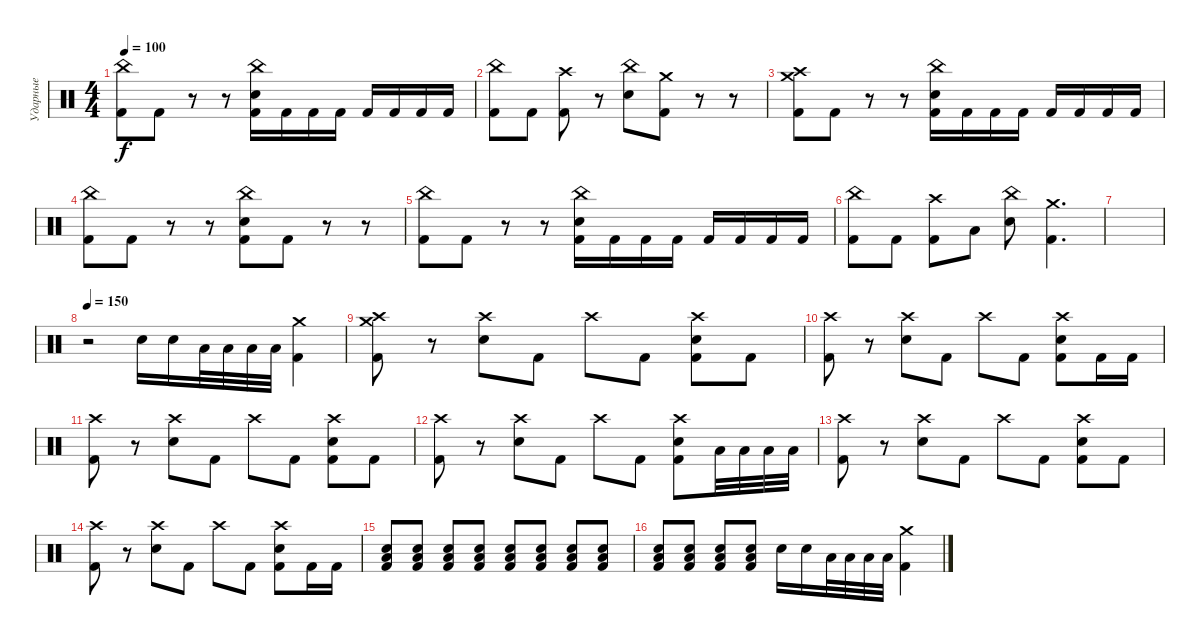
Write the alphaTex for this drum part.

\track ("Ударные" "Ударные") {instrument percussion}
\staff {score}
\articulation defaults
\ts (4 4)
\tempo 100
\clef neutral
\ks c
("China (hit)" "Kick (hit) 2").8{dy f} "Kick (hit) 2".8 r.8 r.8 ("China (hit)" "Electric Snare (hit)" "Kick (hit) 2").16 "Kick (hit) 2".16 "Kick (hit) 2".16 "Kick (hit) 2".16 "Kick (hit) 2".16 "Kick (hit) 2".16 "Kick (hit) 2".16 "Kick (hit) 2".16 |
("China (hit)" "Kick (hit) 2").8 "Kick (hit) 2".8 ("Crash high (hit)" "Kick (hit) 2").8 r.8 ("China (hit)" "Electric Snare (hit)").8 ("Crash medium (hit)" "Kick (hit) 2").8 r.8 r.8 |
("Crash medium (hit)" "Crash high (hit)" "Kick (hit) 2").8 "Kick (hit) 2".8 r.8 r.8 ("China (hit)" "Electric Snare (hit)" "Kick (hit) 2").16 "Kick (hit) 2".16 "Kick (hit) 2".16 "Kick (hit) 2".16 "Kick (hit) 2".16 "Kick (hit) 2".16 "Kick (hit) 2".16 "Kick (hit) 2".16 |
("China (hit)" "Kick (hit) 2").8 "Kick (hit) 2".8 r.8 r.8 ("China (hit)" "Electric Snare (hit)" "Kick (hit) 2").8 "Kick (hit) 2".8 r.8 r.8 |
("China (hit)" "Kick (hit) 2").8 "Kick (hit) 2".8 r.8 r.8 ("China (hit)" "Electric Snare (hit)" "Kick (hit) 2").16 "Kick (hit) 2".16 "Kick (hit) 2".16 "Kick (hit) 2".16 "Kick (hit) 2".16 "Kick (hit) 2".16 "Kick (hit) 2".16 "Kick (hit) 2".16 |
("China (hit)" "Kick (hit) 2").8 "Kick (hit) 2".8 ("Crash high (hit)" "Kick (hit) 2").8 "Low Tom (hit)".8 ("China (hit)" "Electric Snare (hit)").8 ("Crash medium (hit)" "Kick (hit) 2").4{d} |
|
\tempo 150
r.2 "Electric Snare (hit)".16 "Electric Snare (hit)".16 "Low Tom (hit)".32 "Low Tom (hit)".32 "Low Floor Tom (hit)".32 "Low Floor Tom (hit)".32 ("Crash medium (hit)" "Kick (hit) 2").4 |
("Crash medium (hit)" "Crash high (hit)" "Kick (hit) 2").8 r.8 ("Crash high (hit)" "Electric Snare (hit)").8 "Kick (hit) 2".8 "Crash high (hit)".8 "Kick (hit) 2".8 ("Crash high (hit)" "Electric Snare (hit)" "Kick (hit) 2").8 "Kick (hit) 2".8 |
("Crash high (hit)" "Kick (hit) 2").8 r.8 ("Crash high (hit)" "Electric Snare (hit)").8 "Kick (hit) 2".8 "Crash high (hit)".8 "Kick (hit) 2".8 ("Crash high (hit)" "Electric Snare (hit)" "Kick (hit) 2").8 "Kick (hit) 2".16 "Kick (hit) 2".16 |
("Crash high (hit)" "Kick (hit) 2").8 r.8 ("Crash high (hit)" "Electric Snare (hit)").8 "Kick (hit) 2".8 "Crash high (hit)".8 "Kick (hit) 2".8 ("Crash high (hit)" "Electric Snare (hit)" "Kick (hit) 2").8 "Kick (hit) 2".8 |
("Crash high (hit)" "Kick (hit) 2").8 r.8 ("Crash high (hit)" "Electric Snare (hit)").8 "Kick (hit) 2".8 "Crash high (hit)".8 "Kick (hit) 2".8 ("Crash high (hit)" "Electric Snare (hit)" "Kick (hit) 2").8 "Low Tom (hit)".32 "Low Tom (hit)".32 "Low Floor Tom (hit)".32 "Low Floor Tom (hit)".32 |
("Crash high (hit)" "Kick (hit) 2").8 r.8 ("Crash high (hit)" "Electric Snare (hit)").8 "Kick (hit) 2".8 "Crash high (hit)".8 "Kick (hit) 2".8 ("Crash high (hit)" "Electric Snare (hit)" "Kick (hit) 2").8 "Kick (hit) 2".8 |
("Crash high (hit)" "Kick (hit) 2").8 r.8 ("Crash high (hit)" "Electric Snare (hit)").8 "Kick (hit) 2".8 "Crash high (hit)".8 "Kick (hit) 2".8 ("Crash high (hit)" "Electric Snare (hit)" "Kick (hit) 2").8 "Kick (hit) 2".16 "Kick (hit) 2".16 |
("Low Floor Tom (hit)" "Electric Snare (hit)" "Kick (hit) 2").8 ("Low Floor Tom (hit)" "Electric Snare (hit)" "Kick (hit) 2").8 ("Low Floor Tom (hit)" "Electric Snare (hit)" "Kick (hit) 2").8 ("Low Floor Tom (hit)" "Electric Snare (hit)" "Kick (hit) 2").8 ("Low Floor Tom (hit)" "Electric Snare (hit)" "Kick (hit) 2").8 ("Low Floor Tom (hit)" "Electric Snare (hit)" "Kick (hit) 2").8 ("Low Floor Tom (hit)" "Electric Snare (hit)" "Kick (hit) 2").8 ("Low Floor Tom (hit)" "Electric Snare (hit)" "Kick (hit) 2").8 |
("Low Floor Tom (hit)" "Electric Snare (hit)" "Kick (hit) 2").8 ("Low Floor Tom (hit)" "Electric Snare (hit)" "Kick (hit) 2").8 ("Low Floor Tom (hit)" "Electric Snare (hit)" "Kick (hit) 2").8 ("Low Floor Tom (hit)" "Electric Snare (hit)" "Kick (hit) 2").8 "Electric Snare (hit)".16 "Electric Snare (hit)".16 "Low Tom (hit)".32 "Low Tom (hit)".32 "Low Floor Tom (hit)".32 "Low Floor Tom (hit)".32 ("Crash medium (hit)" "Kick (hit) 2").4
